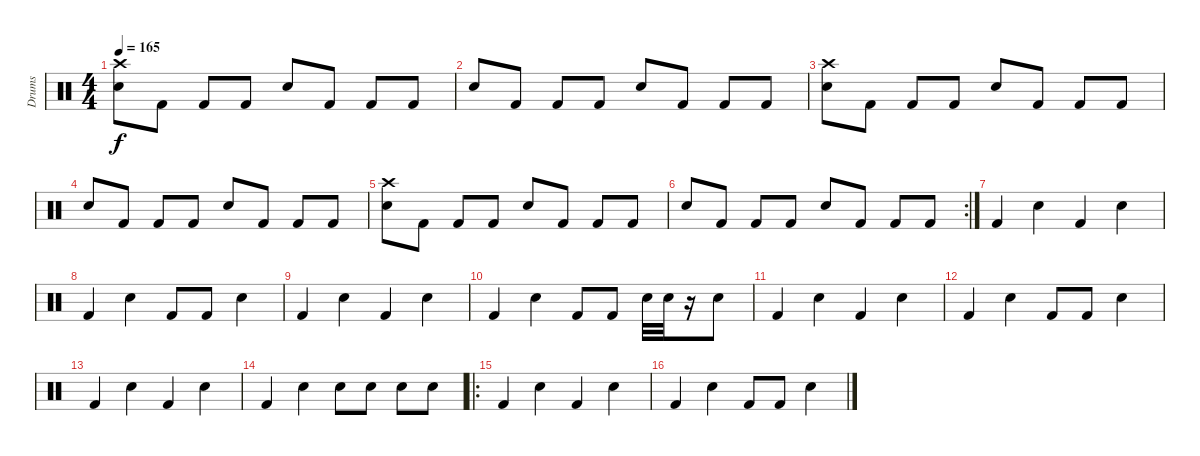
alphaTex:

\track ("Drums" "Drums") {instrument percussion}
\staff {score}
\articulation defaults
\ts (4 4)
\tempo 165
\clef neutral
\ks c
("Snare (hit) 2" "Crash high (hit)").8{dy f} "Kick (hit) 2".8 "Kick (hit) 2".8 "Kick (hit) 2".8 "Snare (hit) 2".8 "Kick (hit) 2".8 "Kick (hit) 2".8 "Kick (hit) 2".8 |
"Snare (hit) 2".8 "Kick (hit) 2".8 "Kick (hit) 2".8 "Kick (hit) 2".8 "Snare (hit) 2".8 "Kick (hit) 2".8 "Kick (hit) 2".8 "Kick (hit) 2".8 |
("Snare (hit) 2" "Crash high (hit)").8 "Kick (hit) 2".8 "Kick (hit) 2".8 "Kick (hit) 2".8 "Snare (hit) 2".8 "Kick (hit) 2".8 "Kick (hit) 2".8 "Kick (hit) 2".8 |
"Snare (hit) 2".8 "Kick (hit) 2".8 "Kick (hit) 2".8 "Kick (hit) 2".8 "Snare (hit) 2".8 "Kick (hit) 2".8 "Kick (hit) 2".8 "Kick (hit) 2".8 |
("Snare (hit) 2" "Crash high (hit)").8 "Kick (hit) 2".8 "Kick (hit) 2".8 "Kick (hit) 2".8 "Snare (hit) 2".8 "Kick (hit) 2".8 "Kick (hit) 2".8 "Kick (hit) 2".8 |
\rc 2 "Snare (hit) 2".8 "Kick (hit) 2".8 "Kick (hit) 2".8 "Kick (hit) 2".8 "Snare (hit) 2".8 "Kick (hit) 2".8 "Kick (hit) 2".8 "Kick (hit) 2".8
|
"Kick (hit) 2".4 "Snare (hit) 2".4 "Kick (hit) 2".4 "Snare (hit) 2".4 |
"Kick (hit) 2".4 "Snare (hit) 2".4 "Kick (hit) 2".8 "Kick (hit) 2".8 "Snare (hit) 2".4 |
"Kick (hit) 2".4 "Snare (hit) 2".4 "Kick (hit) 2".4 "Snare (hit) 2".4 |
"Kick (hit) 2".4 "Snare (hit) 2".4 "Kick (hit) 2".8 "Kick (hit) 2".8 "Snare (hit) 2".32 "Snare (hit) 2".32 r.16 "Snare (hit) 2".8 |
"Kick (hit) 2".4 "Snare (hit) 2".4 "Kick (hit) 2".4 "Snare (hit) 2".4 |
"Kick (hit) 2".4 "Snare (hit) 2".4 "Kick (hit) 2".8 "Kick (hit) 2".8 "Snare (hit) 2".4 |
"Kick (hit) 2".4 "Snare (hit) 2".4 "Kick (hit) 2".4 "Snare (hit) 2".4 |
"Kick (hit) 2".4 "Snare (hit) 2".4 "Snare (hit) 2".8 "Snare (hit) 2".8 "Snare (hit) 2".8 "Snare (hit) 2".8 |
\ro "Kick (hit) 2".4 "Snare (hit) 2".4 "Kick (hit) 2".4 "Snare (hit) 2".4
|
"Kick (hit) 2".4 "Snare (hit) 2".4 "Kick (hit) 2".8 "Kick (hit) 2".8 "Snare (hit) 2".4
